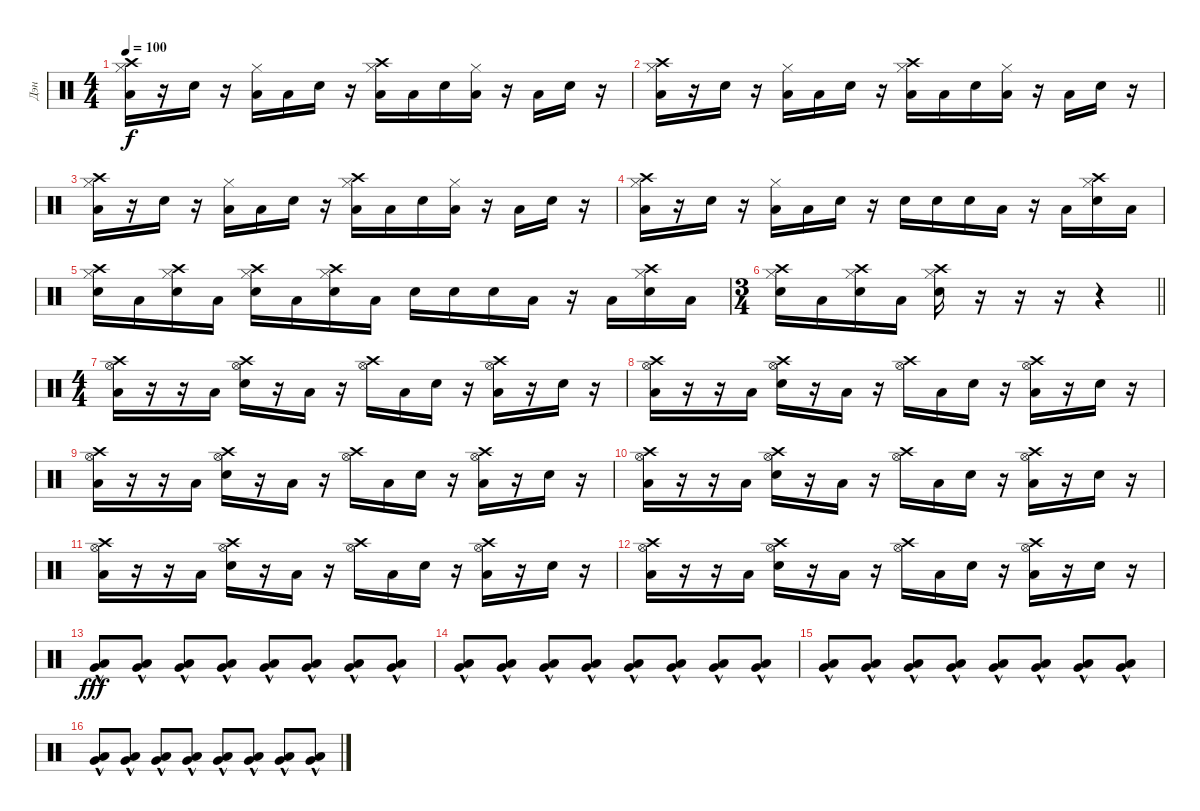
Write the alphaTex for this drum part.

\track ("Дэн" "Дэн") {instrument percussion}
\staff {score}
\articulation defaults
\ts (4 4)
\tempo 100
\clef neutral
\ks c
("Hi-Hat (closed)" "Low Floor Tom (hit)" "Crash high (hit)").16{dy f} r.16 "Electric Snare (hit)".16 r.16 ("Hi-Hat (closed)" "Low Floor Tom (hit)").16 "Low Floor Tom (hit)".16 "Electric Snare (hit)".16 r.16 ("Hi-Hat (closed)" "Low Floor Tom (hit)" "Crash high (hit)").16 "Low Floor Tom (hit)".16 "Electric Snare (hit)".16 ("Hi-Hat (closed)" "Low Floor Tom (hit)").16 r.16 "Low Floor Tom (hit)".16 "Electric Snare (hit)".16 r.16 |
("Hi-Hat (closed)" "Low Floor Tom (hit)" "Crash high (hit)").16 r.16 "Electric Snare (hit)".16 r.16 ("Hi-Hat (closed)" "Low Floor Tom (hit)").16 "Low Floor Tom (hit)".16 "Electric Snare (hit)".16 r.16 ("Hi-Hat (closed)" "Low Floor Tom (hit)" "Crash high (hit)").16 "Low Floor Tom (hit)".16 "Electric Snare (hit)".16 ("Hi-Hat (closed)" "Low Floor Tom (hit)").16 r.16 "Low Floor Tom (hit)".16 "Electric Snare (hit)".16 r.16 |
("Hi-Hat (closed)" "Low Floor Tom (hit)" "Crash high (hit)").16 r.16 "Electric Snare (hit)".16 r.16 ("Hi-Hat (closed)" "Low Floor Tom (hit)").16 "Low Floor Tom (hit)".16 "Electric Snare (hit)".16 r.16 ("Hi-Hat (closed)" "Low Floor Tom (hit)" "Crash high (hit)").16 "Low Floor Tom (hit)".16 "Electric Snare (hit)".16 ("Hi-Hat (closed)" "Low Floor Tom (hit)").16 r.16 "Low Floor Tom (hit)".16 "Electric Snare (hit)".16 r.16 |
("Hi-Hat (closed)" "Low Floor Tom (hit)" "Crash high (hit)").16 r.16 "Electric Snare (hit)".16 r.16 ("Hi-Hat (closed)" "Low Floor Tom (hit)").16 "Low Floor Tom (hit)".16 "Electric Snare (hit)".16 r.16 "Electric Snare (hit)".16 "Electric Snare (hit)".16 "Electric Snare (hit)".16 "Low Floor Tom (hit)".16 r.16 "Low Floor Tom (hit)".16 ("Hi-Hat (closed)" "Electric Snare (hit)" "Crash high (hit)").16 "Low Floor Tom (hit)".16 |
("Hi-Hat (closed)" "Electric Snare (hit)" "Crash high (hit)").16 "Low Floor Tom (hit)".16 ("Hi-Hat (closed)" "Electric Snare (hit)" "Crash high (hit)").16 "Low Floor Tom (hit)".16 ("Hi-Hat (closed)" "Electric Snare (hit)" "Crash high (hit)").16 "Low Floor Tom (hit)".16 ("Hi-Hat (closed)" "Electric Snare (hit)" "Crash high (hit)").16 "Low Floor Tom (hit)".16 "Electric Snare (hit)".16 "Electric Snare (hit)".16 "Electric Snare (hit)".16 "Low Floor Tom (hit)".16 r.16 "Low Floor Tom (hit)".16 ("Hi-Hat (closed)" "Electric Snare (hit)" "Crash high (hit)").16 "Low Floor Tom (hit)".16 |
\ts (3 4)
\barLineRight lightlight
("Hi-Hat (closed)" "Electric Snare (hit)" "Crash high (hit)").16 "Low Floor Tom (hit)".16 ("Hi-Hat (closed)" "Electric Snare (hit)" "Crash high (hit)").16 "Low Floor Tom (hit)".16 ("Hi-Hat (closed)" "Electric Snare (hit)" "Crash high (hit)").16 r.16 r.16 r.16 r.4 |
\ts (4 4)
("Hi-Hat (open)" "Low Floor Tom (hit)" "Crash high (hit)").16 r.16 r.16 "Low Floor Tom (hit)".16 ("Hi-Hat (open)" "Electric Snare (hit)" "Crash high (hit)").16 r.16 "Low Floor Tom (hit)".16 r.16 ("Hi-Hat (open)" "Crash high (hit)").16 "Low Floor Tom (hit)".16 "Electric Snare (hit)".16 r.16 ("Hi-Hat (open)" "Low Floor Tom (hit)" "Crash high (hit)").16 r.16 "Electric Snare (hit)".16 r.16 |
("Hi-Hat (open)" "Low Floor Tom (hit)" "Crash high (hit)").16 r.16 r.16 "Low Floor Tom (hit)".16 ("Hi-Hat (open)" "Electric Snare (hit)" "Crash high (hit)").16 r.16 "Low Floor Tom (hit)".16 r.16 ("Hi-Hat (open)" "Crash high (hit)").16 "Low Floor Tom (hit)".16 "Electric Snare (hit)".16 r.16 ("Hi-Hat (open)" "Low Floor Tom (hit)" "Crash high (hit)").16 r.16 "Electric Snare (hit)".16 r.16 |
("Hi-Hat (open)" "Low Floor Tom (hit)" "Crash high (hit)").16 r.16 r.16 "Low Floor Tom (hit)".16 ("Hi-Hat (open)" "Electric Snare (hit)" "Crash high (hit)").16 r.16 "Low Floor Tom (hit)".16 r.16 ("Hi-Hat (open)" "Crash high (hit)").16 "Low Floor Tom (hit)".16 "Electric Snare (hit)".16 r.16 ("Hi-Hat (open)" "Low Floor Tom (hit)" "Crash high (hit)").16 r.16 "Electric Snare (hit)".16 r.16 |
("Hi-Hat (open)" "Low Floor Tom (hit)" "Crash high (hit)").16 r.16 r.16 "Low Floor Tom (hit)".16 ("Hi-Hat (open)" "Electric Snare (hit)" "Crash high (hit)").16 r.16 "Low Floor Tom (hit)".16 r.16 ("Hi-Hat (open)" "Crash high (hit)").16 "Low Floor Tom (hit)".16 "Electric Snare (hit)".16 r.16 ("Hi-Hat (open)" "Low Floor Tom (hit)" "Crash high (hit)").16 r.16 "Electric Snare (hit)".16 r.16 |
("Hi-Hat (open)" "Low Floor Tom (hit)" "Crash high (hit)").16 r.16 r.16 "Low Floor Tom (hit)".16 ("Hi-Hat (open)" "Electric Snare (hit)" "Crash high (hit)").16 r.16 "Low Floor Tom (hit)".16 r.16 ("Hi-Hat (open)" "Crash high (hit)").16 "Low Floor Tom (hit)".16 "Electric Snare (hit)".16 r.16 ("Hi-Hat (open)" "Low Floor Tom (hit)" "Crash high (hit)").16 r.16 "Electric Snare (hit)".16 r.16 |
("Hi-Hat (open)" "Low Floor Tom (hit)" "Crash high (hit)").16 r.16 r.16 "Low Floor Tom (hit)".16 ("Hi-Hat (open)" "Electric Snare (hit)" "Crash high (hit)").16 r.16 "Low Floor Tom (hit)".16 r.16 ("Hi-Hat (open)" "Crash high (hit)").16 "Low Floor Tom (hit)".16 "Electric Snare (hit)".16 r.16 ("Hi-Hat (open)" "Low Floor Tom (hit)" "Crash high (hit)").16 r.16 "Electric Snare (hit)".16 r.16 |
("Low Floor Tom (hit)"{hac} "Very Low Tom (hit)"{hac}).8{dy fff} ("Low Floor Tom (hit)"{hac} "Very Low Tom (hit)"{hac}).8 ("Low Floor Tom (hit)"{hac} "Very Low Tom (hit)"{hac}).8 ("Low Floor Tom (hit)"{hac} "Very Low Tom (hit)"{hac}).8 ("Low Floor Tom (hit)"{hac} "Very Low Tom (hit)"{hac}).8 ("Low Floor Tom (hit)"{hac} "Very Low Tom (hit)"{hac}).8 ("Low Floor Tom (hit)"{hac} "Very Low Tom (hit)"{hac}).8 ("Low Floor Tom (hit)"{hac} "Very Low Tom (hit)"{hac}).8 |
("Low Floor Tom (hit)"{hac} "Very Low Tom (hit)"{hac}).8 ("Low Floor Tom (hit)"{hac} "Very Low Tom (hit)"{hac}).8 ("Low Floor Tom (hit)"{hac} "Very Low Tom (hit)"{hac}).8 ("Low Floor Tom (hit)"{hac} "Very Low Tom (hit)"{hac}).8 ("Low Floor Tom (hit)"{hac} "Very Low Tom (hit)"{hac}).8 ("Low Floor Tom (hit)"{hac} "Very Low Tom (hit)"{hac}).8 ("Low Floor Tom (hit)"{hac} "Very Low Tom (hit)"{hac}).8 ("Low Floor Tom (hit)"{hac} "Very Low Tom (hit)"{hac}).8 |
("Low Floor Tom (hit)"{hac} "Very Low Tom (hit)"{hac}).8 ("Low Floor Tom (hit)"{hac} "Very Low Tom (hit)"{hac}).8 ("Low Floor Tom (hit)"{hac} "Very Low Tom (hit)"{hac}).8 ("Low Floor Tom (hit)"{hac} "Very Low Tom (hit)"{hac}).8 ("Low Floor Tom (hit)"{hac} "Very Low Tom (hit)"{hac}).8 ("Low Floor Tom (hit)"{hac} "Very Low Tom (hit)"{hac}).8 ("Low Floor Tom (hit)"{hac} "Very Low Tom (hit)"{hac}).8 ("Low Floor Tom (hit)"{hac} "Very Low Tom (hit)"{hac}).8 |
("Low Floor Tom (hit)"{hac} "Very Low Tom (hit)"{hac}).8 ("Low Floor Tom (hit)"{hac} "Very Low Tom (hit)"{hac}).8 ("Low Floor Tom (hit)"{hac} "Very Low Tom (hit)"{hac}).8 ("Low Floor Tom (hit)"{hac} "Very Low Tom (hit)"{hac}).8 ("Low Floor Tom (hit)"{hac} "Very Low Tom (hit)"{hac}).8 ("Low Floor Tom (hit)"{hac} "Very Low Tom (hit)"{hac}).8 ("Low Floor Tom (hit)"{hac} "Very Low Tom (hit)"{hac}).8 ("Low Floor Tom (hit)"{hac} "Very Low Tom (hit)"{hac}).8
